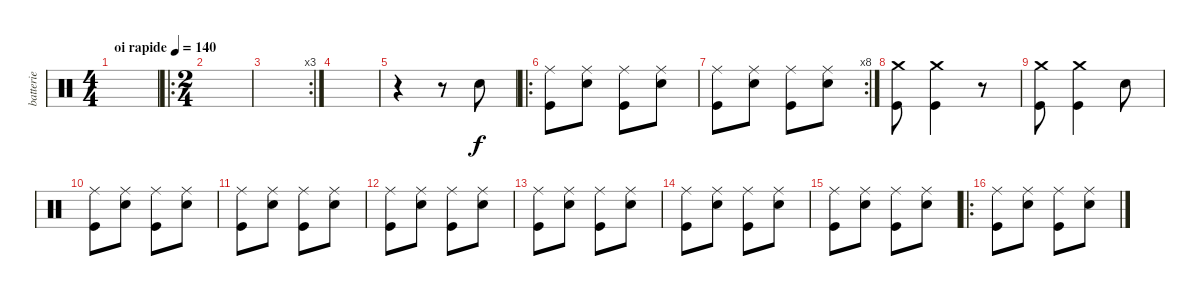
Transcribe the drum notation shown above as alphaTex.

\track ("batterie " "batterie ") {instrument percussion}
\staff {score}
\articulation defaults
\ts (4 4)
\tempo (140 "oi rapide")
\clef neutral
\ks c
|
\ro
\ts (2 4)
|
\rc 3
|
|
r.4 r.8 "Snare (hit) 2".8 |
\ro
("Ride (middle)" "Kick (hit)").8 ("Ride (middle)" "Snare (hit) 2").8 ("Ride (middle)" "Kick (hit)").8 ("Ride (middle)" "Snare (hit) 2").8 |
\rc 8
("Ride (middle)" "Kick (hit)").8 ("Ride (middle)" "Snare (hit) 2").8 ("Ride (middle)" "Kick (hit)").8 ("Ride (middle)" "Snare (hit) 2").8 |
("Crash medium (hit)" "Kick (hit)").8 ("Crash medium (hit)" "Kick (hit)").4 r.8 |
("Crash medium (hit)" "Kick (hit)").8 ("Crash medium (hit)" "Kick (hit)").4 "Snare (hit) 2".8 |
("Ride (middle)" "Kick (hit)").8 ("Ride (middle)" "Snare (hit) 2").8 ("Ride (middle)" "Kick (hit)").8 ("Ride (middle)" "Snare (hit) 2").8 |
("Ride (middle)" "Kick (hit)").8 ("Ride (middle)" "Snare (hit) 2").8 ("Ride (middle)" "Kick (hit)").8 ("Ride (middle)" "Snare (hit) 2").8 |
("Ride (middle)" "Kick (hit)").8 ("Ride (middle)" "Snare (hit) 2").8 ("Ride (middle)" "Kick (hit)").8 ("Ride (middle)" "Snare (hit) 2").8 |
("Ride (middle)" "Kick (hit)").8 ("Ride (middle)" "Snare (hit) 2").8 ("Ride (middle)" "Kick (hit)").8 ("Ride (middle)" "Snare (hit) 2").8 |
("Ride (middle)" "Kick (hit)").8 ("Ride (middle)" "Snare (hit) 2").8 ("Ride (middle)" "Kick (hit)").8 ("Ride (middle)" "Snare (hit) 2").8 |
("Ride (middle)" "Kick (hit)").8 ("Ride (middle)" "Snare (hit) 2").8 ("Ride (middle)" "Kick (hit)").8 ("Ride (middle)" "Snare (hit) 2").8 |
\ro
("Ride (middle)" "Kick (hit)").8 ("Ride (middle)" "Snare (hit) 2").8 ("Ride (middle)" "Kick (hit)").8 ("Ride (middle)" "Snare (hit) 2").8
